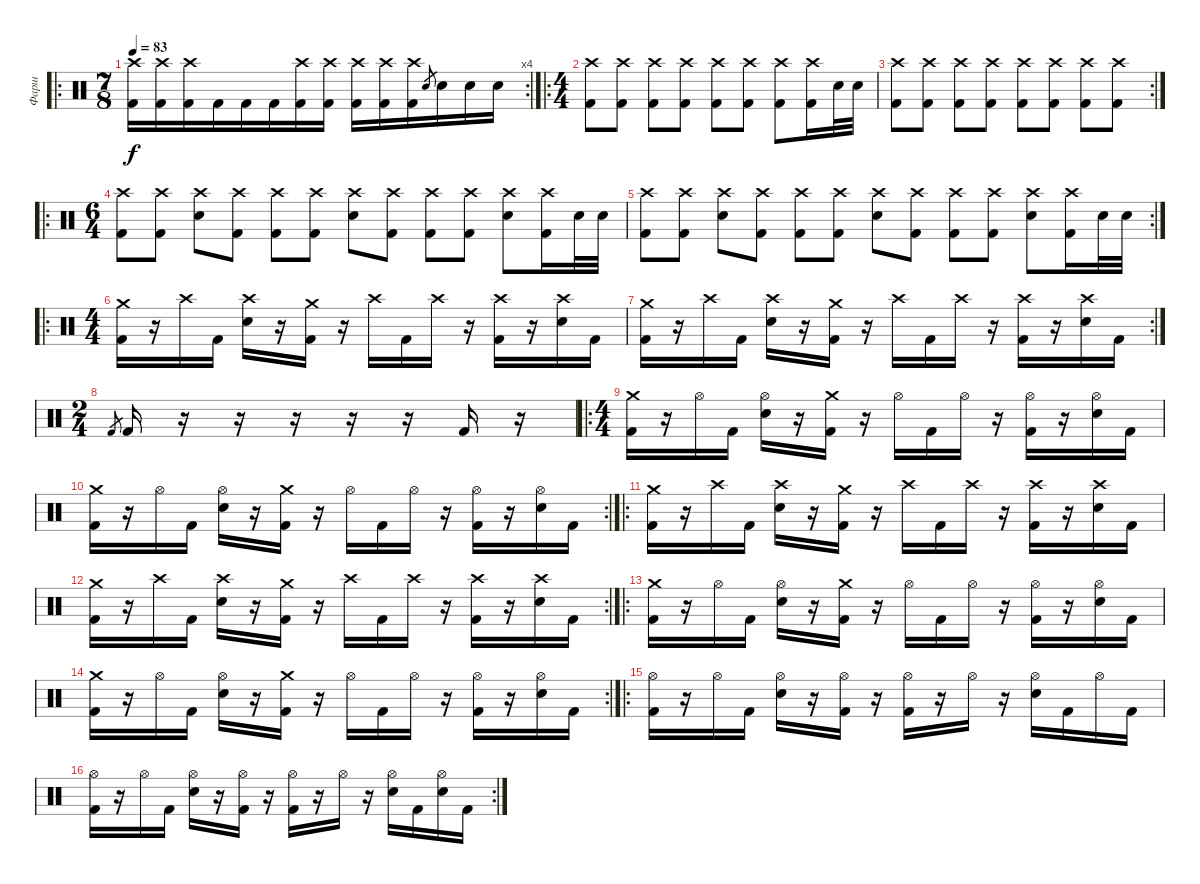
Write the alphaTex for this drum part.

\track ("Фарш" "Фарш") {instrument percussion}
\staff {score}
\articulation defaults
\ro
\rc 4
\ts (7 8)
\tempo 83
\clef neutral
\ks c
("Kick (hit) 2" "Crash high (hit)").16{dy f} ("Kick (hit) 2" "Crash high (hit)").16 ("Kick (hit) 2" "Crash high (hit)").16 "Kick (hit) 2".16 "Kick (hit) 2".16 "Kick (hit) 2".16 ("Kick (hit) 2" "Crash high (hit)").16 ("Kick (hit) 2" "Crash high (hit)").16 ("Kick (hit) 2" "Crash high (hit)").16 ("Kick (hit) 2" "Crash high (hit)").16 ("Kick (hit) 2" "Crash high (hit)").16 "Electric Snare (hit)".8{gr} "Electric Snare (hit)".16 "Electric Snare (hit)".16 "Electric Snare (hit)".16 |
\ro
\ts (4 4)
("Kick (hit) 2" "Crash high (hit)").8 ("Kick (hit) 2" "Crash high (hit)").8 ("Kick (hit) 2" "Crash high (hit)").8 ("Kick (hit) 2" "Crash high (hit)").8 ("Kick (hit) 2" "Crash high (hit)").8 ("Kick (hit) 2" "Crash high (hit)").8 ("Kick (hit) 2" "Crash high (hit)").8 ("Kick (hit) 2" "Crash high (hit)").16 "Electric Snare (hit)".32 "Electric Snare (hit)".32 |
\rc 2
("Kick (hit) 2" "Crash high (hit)").8 ("Kick (hit) 2" "Crash high (hit)").8 ("Kick (hit) 2" "Crash high (hit)").8 ("Kick (hit) 2" "Crash high (hit)").8 ("Kick (hit) 2" "Crash high (hit)").8 ("Kick (hit) 2" "Crash high (hit)").8 ("Kick (hit) 2" "Crash high (hit)").8 ("Kick (hit) 2" "Crash high (hit)").8 |
\ro
\ts (6 4)
("Kick (hit) 2" "Crash high (hit)").8 ("Kick (hit) 2" "Crash high (hit)").8 ("Electric Snare (hit)" "Crash high (hit)").8 ("Kick (hit) 2" "Crash high (hit)").8 ("Kick (hit) 2" "Crash high (hit)").8 ("Kick (hit) 2" "Crash high (hit)").8 ("Electric Snare (hit)" "Crash high (hit)").8 ("Crash high (hit)" "Kick (hit) 2").8 ("Kick (hit) 2" "Crash high (hit)").8 ("Kick (hit) 2" "Crash high (hit)").8 ("Electric Snare (hit)" "Crash high (hit)").8 ("Kick (hit) 2" "Crash high (hit)").16 "Electric Snare (hit)".32 "Electric Snare (hit)".32 |
\rc 2
("Kick (hit) 2" "Crash high (hit)").8 ("Kick (hit) 2" "Crash high (hit)").8 ("Electric Snare (hit)" "Crash high (hit)").8 ("Kick (hit) 2" "Crash high (hit)").8 ("Kick (hit) 2" "Crash high (hit)").8 ("Kick (hit) 2" "Crash high (hit)").8 ("Electric Snare (hit)" "Crash high (hit)").8 ("Crash high (hit)" "Kick (hit) 2").8 ("Kick (hit) 2" "Crash high (hit)").8 ("Kick (hit) 2" "Crash high (hit)").8 ("Electric Snare (hit)" "Crash high (hit)").8 ("Kick (hit) 2" "Crash high (hit)").16 "Electric Snare (hit)".32 "Electric Snare (hit)".32 |
\ro
\ts (4 4)
("Crash medium (hit)" "Kick (hit) 2").16 r.16 "Crash high (hit)".16 "Kick (hit) 2".16 ("Crash high (hit)" "Electric Snare (hit)").16 r.16 ("Crash medium (hit)" "Kick (hit) 2").16 r.16 "Crash high (hit)".16 "Kick (hit) 2".16 "Crash high (hit)".16 r.16 ("Crash high (hit)" "Kick (hit) 2").16 r.16 ("Crash high (hit)" "Electric Snare (hit)").16 "Kick (hit) 2".16 |
\rc 2
("Crash medium (hit)" "Kick (hit) 2").16 r.16 "Crash high (hit)".16 "Kick (hit) 2".16 ("Crash high (hit)" "Electric Snare (hit)").16 r.16 ("Crash medium (hit)" "Kick (hit) 2").16 r.16 "Crash high (hit)".16 "Kick (hit) 2".16 "Crash high (hit)".16 r.16 ("Crash high (hit)" "Kick (hit) 2").16 r.16 ("Crash high (hit)" "Electric Snare (hit)").16 "Kick (hit) 2".16 |
\ts (2 4)
"Kick (hit) 2".8{gr} "Kick (hit) 2".16 r.16 r.16 r.16 r.16 r.16 "Kick (hit) 2".16 r.16 |
\ro
\ts (4 4)
("Crash medium (hit)" "Kick (hit) 2").16 r.16 "Hi-Hat (open)".16 "Kick (hit) 2".16 ("Hi-Hat (open)" "Electric Snare (hit)").16 r.16 ("Crash medium (hit)" "Kick (hit) 2").16 r.16 "Hi-Hat (open)".16 "Kick (hit) 2".16 "Hi-Hat (open)".16 r.16 ("Hi-Hat (open)" "Kick (hit) 2").16 r.16 ("Hi-Hat (open)" "Electric Snare (hit)").16 "Kick (hit) 2".16 |
\rc 2
("Crash medium (hit)" "Kick (hit) 2").16 r.16 "Hi-Hat (open)".16 "Kick (hit) 2".16 ("Hi-Hat (open)" "Electric Snare (hit)").16 r.16 ("Crash medium (hit)" "Kick (hit) 2").16 r.16 "Hi-Hat (open)".16 "Kick (hit) 2".16 "Hi-Hat (open)".16 r.16 ("Hi-Hat (open)" "Kick (hit) 2").16 r.16 ("Hi-Hat (open)" "Electric Snare (hit)").16 "Kick (hit) 2".16 |
\ro
("Crash medium (hit)" "Kick (hit) 2").16 r.16 "Crash high (hit)".16 "Kick (hit) 2".16 ("Crash high (hit)" "Electric Snare (hit)").16 r.16 ("Crash medium (hit)" "Kick (hit) 2").16 r.16 "Crash high (hit)".16 "Kick (hit) 2".16 "Crash high (hit)".16 r.16 ("Crash high (hit)" "Kick (hit) 2").16 r.16 ("Crash high (hit)" "Electric Snare (hit)").16 "Kick (hit) 2".16 |
\rc 2
("Crash medium (hit)" "Kick (hit) 2").16 r.16 "Crash high (hit)".16 "Kick (hit) 2".16 ("Crash high (hit)" "Electric Snare (hit)").16 r.16 ("Crash medium (hit)" "Kick (hit) 2").16 r.16 "Crash high (hit)".16 "Kick (hit) 2".16 "Crash high (hit)".16 r.16 ("Crash high (hit)" "Kick (hit) 2").16 r.16 ("Crash high (hit)" "Electric Snare (hit)").16 "Kick (hit) 2".16 |
\ro
("Crash medium (hit)" "Kick (hit) 2").16 r.16 "Hi-Hat (open)".16 "Kick (hit) 2".16 ("Hi-Hat (open)" "Electric Snare (hit)").16 r.16 ("Crash medium (hit)" "Kick (hit) 2").16 r.16 "Hi-Hat (open)".16 "Kick (hit) 2".16 "Hi-Hat (open)".16 r.16 ("Hi-Hat (open)" "Kick (hit) 2").16 r.16 ("Hi-Hat (open)" "Electric Snare (hit)").16 "Kick (hit) 2".16 |
\rc 2
("Crash medium (hit)" "Kick (hit) 2").16 r.16 "Hi-Hat (open)".16 "Kick (hit) 2".16 ("Hi-Hat (open)" "Electric Snare (hit)").16 r.16 ("Crash medium (hit)" "Kick (hit) 2").16 r.16 "Hi-Hat (open)".16 "Kick (hit) 2".16 "Hi-Hat (open)".16 r.16 ("Hi-Hat (open)" "Kick (hit) 2").16 r.16 ("Hi-Hat (open)" "Electric Snare (hit)").16 "Kick (hit) 2".16 |
\ro
("Hi-Hat (open)" "Kick (hit) 2").16 r.16 "Hi-Hat (open)".16 "Kick (hit) 2".16 ("Hi-Hat (open)" "Electric Snare (hit)").16 r.16 ("Hi-Hat (open)" "Kick (hit) 2").16 r.16 ("Hi-Hat (open)" "Kick (hit) 2").16 r.16 "Hi-Hat (open)".16 r.16 ("Hi-Hat (open)" "Electric Snare (hit)").16 "Kick (hit) 2".16 "Hi-Hat (open)".16 "Kick (hit) 2".16 |
\rc 2
("Hi-Hat (open)" "Kick (hit) 2").16 r.16 "Hi-Hat (open)".16 "Kick (hit) 2".16 ("Hi-Hat (open)" "Electric Snare (hit)").16 r.16 ("Hi-Hat (open)" "Kick (hit) 2").16 r.16 ("Hi-Hat (open)" "Kick (hit) 2").16 r.16 "Hi-Hat (open)".16 r.16 ("Hi-Hat (open)" "Electric Snare (hit)").16 "Kick (hit) 2".16 ("Hi-Hat (open)" "Electric Snare (hit)").16 "Kick (hit) 2".16
